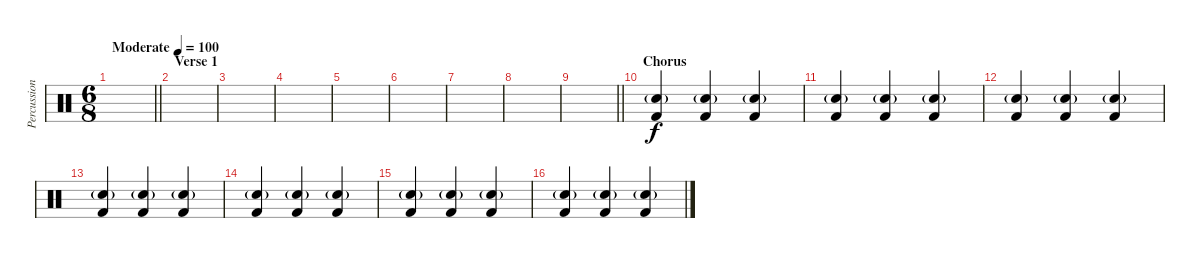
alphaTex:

\track ("Percussion" "Percussion") {instrument percussion}
\staff {score}
\articulation defaults
\ts (6 8)
\tempo (100 "Moderate")
\clef neutral
\barLineRight lightlight
\ks c
|
\section ("" "Verse 1")
|
|
|
|
|
|
|
\barLineRight lightlight
|
\section ("" "Chorus")
("Snare (hit) 2"{g} "Kick (hit) 2").4 ("Snare (hit) 2"{g} "Kick (hit) 2").4 ("Snare (hit) 2"{g} "Kick (hit) 2").4 |
("Snare (hit) 2"{g} "Kick (hit) 2").4 ("Snare (hit) 2"{g} "Kick (hit) 2").4 ("Snare (hit) 2"{g} "Kick (hit) 2").4 |
("Snare (hit) 2"{g} "Kick (hit) 2").4 ("Snare (hit) 2"{g} "Kick (hit) 2").4 ("Snare (hit) 2"{g} "Kick (hit) 2").4 |
("Snare (hit) 2"{g} "Kick (hit) 2").4 ("Snare (hit) 2"{g} "Kick (hit) 2").4 ("Snare (hit) 2"{g} "Kick (hit) 2").4 |
("Snare (hit) 2"{g} "Kick (hit) 2").4 ("Snare (hit) 2"{g} "Kick (hit) 2").4 ("Snare (hit) 2"{g} "Kick (hit) 2").4 |
("Snare (hit) 2"{g} "Kick (hit) 2").4 ("Snare (hit) 2"{g} "Kick (hit) 2").4 ("Snare (hit) 2"{g} "Kick (hit) 2").4 |
("Snare (hit) 2"{g} "Kick (hit) 2").4 ("Snare (hit) 2"{g} "Kick (hit) 2").4 ("Snare (hit) 2"{g} "Kick (hit) 2").4
